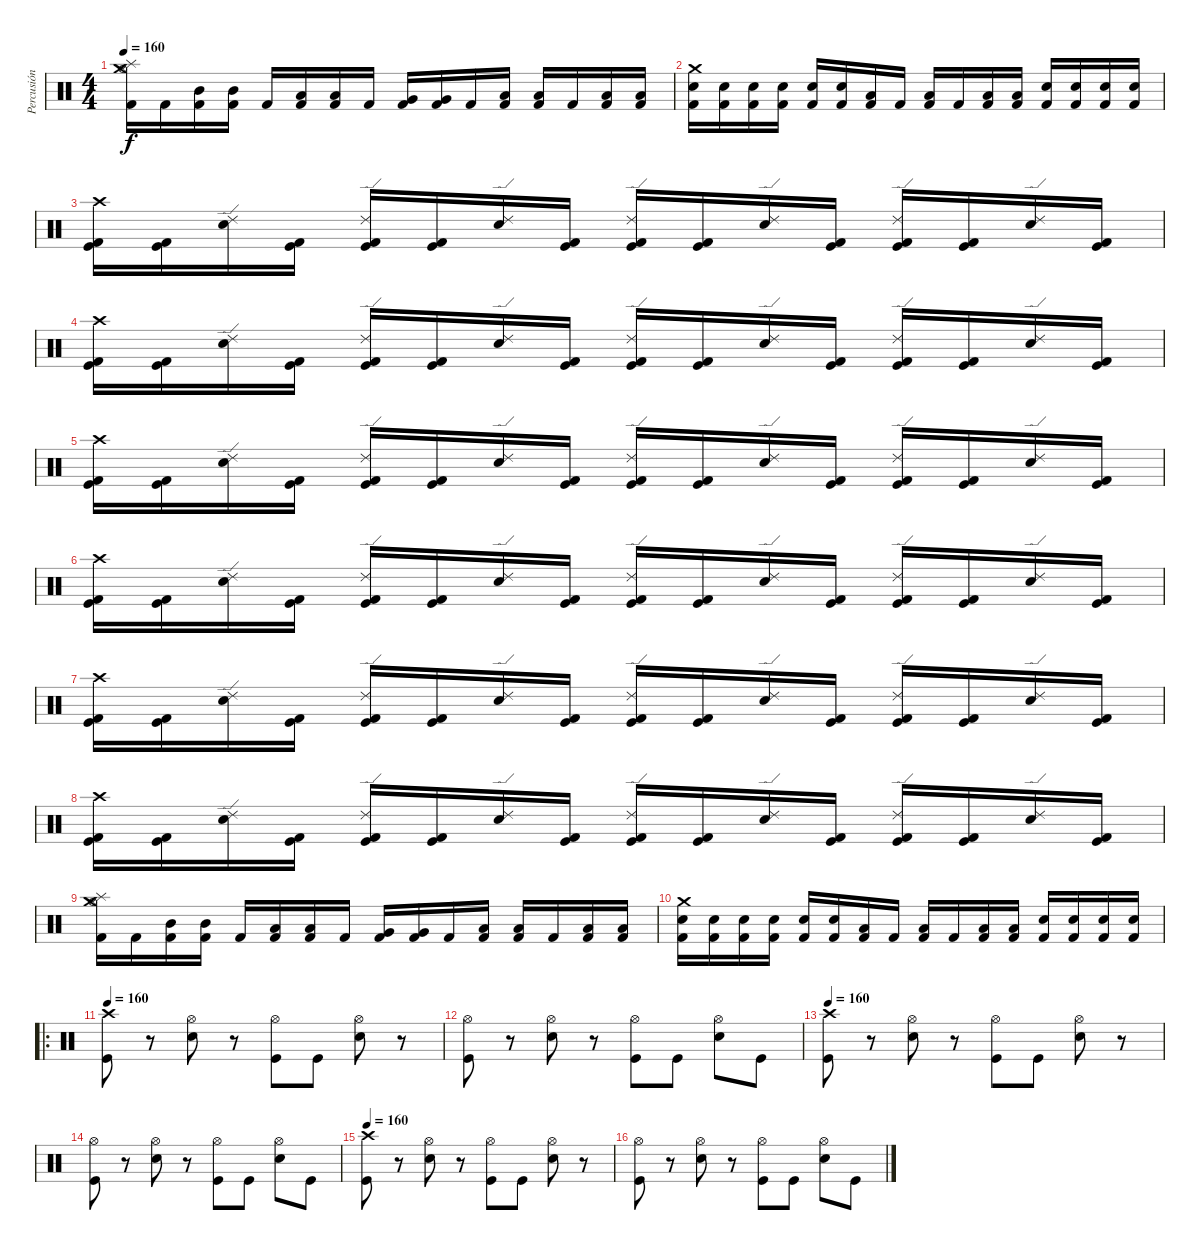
\track ("Percusión" "Percusión") {instrument percussion}
\staff {score}
\articulation defaults
\ts (4 4)
\tempo 160
\clef neutral
\ks c
("Splash (hit)" "Hi-Hat (open)" "Crash medium (hit)" "Kick (hit) 2").16{dy f} "Kick (hit) 2".16 ("Mid Tom (hit)" "Kick (hit) 2").16 ("Mid Tom (hit)" "Kick (hit) 2").16 "Kick (hit) 2".16 ("Low Tom (hit)" "Kick (hit) 2").16 ("Low Tom (hit)" "Kick (hit) 2").16 "Kick (hit) 2".16 ("Very Low Tom (hit)" "Kick (hit) 2").16 ("Very Low Tom (hit)" "Kick (hit) 2").16 "Kick (hit) 2".16 ("Low Floor Tom (hit)" "Kick (hit) 2").16 ("Low Floor Tom (hit)" "Kick (hit) 2").16 "Kick (hit) 2".16 ("Low Floor Tom (hit)" "Kick (hit) 2").16 ("Low Floor Tom (hit)" "Kick (hit) 2").16 |
("Kick (hit) 2" "Electric Snare (hit)" "Crash medium (hit)").16 ("Kick (hit) 2" "Electric Snare (hit)").16 ("Kick (hit) 2" "Electric Snare (hit)").16 ("Kick (hit) 2" "Electric Snare (hit)").16 ("Kick (hit) 2" "Electric Snare (hit)").16 ("Kick (hit) 2" "Electric Snare (hit)").16 ("Kick (hit) 2" "Low Tom (hit)").16 "Kick (hit) 2".16 ("Kick (hit) 2" "Low Tom (hit)").16 "Kick (hit) 2".16 ("Kick (hit) 2" "Low Tom (hit)").16 ("Kick (hit) 2" "Low Tom (hit)").16 ("Kick (hit) 2" "Electric Snare (hit)").16 ("Kick (hit) 2" "Electric Snare (hit)").16 ("Kick (hit) 2" "Electric Snare (hit)").16 ("Kick (hit) 2" "Electric Snare (hit)").16 |
("Kick (hit)" "Kick (hit) 2" "Crash high (hit)").16 ("Kick (hit)" "Kick (hit) 2").16 ("Electric Snare (hit)" "Ride (edge) 2").16 ("Kick (hit)" "Kick (hit) 2").16 ("Kick (hit)" "Kick (hit) 2" "Ride (edge) 2").16 ("Kick (hit)" "Kick (hit) 2").16 ("Electric Snare (hit)" "Ride (edge) 2").16 ("Kick (hit)" "Kick (hit) 2").16 ("Kick (hit)" "Kick (hit) 2" "Ride (edge) 2").16 ("Kick (hit)" "Kick (hit) 2").16 ("Electric Snare (hit)" "Ride (edge) 2").16 ("Kick (hit)" "Kick (hit) 2").16 ("Kick (hit)" "Kick (hit) 2" "Ride (edge) 2").16 ("Kick (hit)" "Kick (hit) 2").16 ("Electric Snare (hit)" "Ride (edge) 2").16 ("Kick (hit)" "Kick (hit) 2").16 |
("Kick (hit)" "Kick (hit) 2" "Crash high (hit)").16 ("Kick (hit)" "Kick (hit) 2").16 ("Electric Snare (hit)" "Ride (edge) 2").16 ("Kick (hit)" "Kick (hit) 2").16 ("Kick (hit)" "Kick (hit) 2" "Ride (edge) 2").16 ("Kick (hit)" "Kick (hit) 2").16 ("Electric Snare (hit)" "Ride (edge) 2").16 ("Kick (hit)" "Kick (hit) 2").16 ("Kick (hit)" "Kick (hit) 2" "Ride (edge) 2").16 ("Kick (hit)" "Kick (hit) 2").16 ("Electric Snare (hit)" "Ride (edge) 2").16 ("Kick (hit)" "Kick (hit) 2").16 ("Kick (hit)" "Kick (hit) 2" "Ride (edge) 2").16 ("Kick (hit)" "Kick (hit) 2").16 ("Electric Snare (hit)" "Ride (edge) 2").16 ("Kick (hit)" "Kick (hit) 2").16 |
("Kick (hit)" "Kick (hit) 2" "Crash high (hit)").16 ("Kick (hit)" "Kick (hit) 2").16 ("Electric Snare (hit)" "Ride (edge) 2").16 ("Kick (hit)" "Kick (hit) 2").16 ("Kick (hit)" "Kick (hit) 2" "Ride (edge) 2").16 ("Kick (hit)" "Kick (hit) 2").16 ("Electric Snare (hit)" "Ride (edge) 2").16 ("Kick (hit)" "Kick (hit) 2").16 ("Kick (hit)" "Kick (hit) 2" "Ride (edge) 2").16 ("Kick (hit)" "Kick (hit) 2").16 ("Electric Snare (hit)" "Ride (edge) 2").16 ("Kick (hit)" "Kick (hit) 2").16 ("Kick (hit)" "Kick (hit) 2" "Ride (edge) 2").16 ("Kick (hit)" "Kick (hit) 2").16 ("Electric Snare (hit)" "Ride (edge) 2").16 ("Kick (hit)" "Kick (hit) 2").16 |
("Kick (hit)" "Kick (hit) 2" "Crash high (hit)").16 ("Kick (hit)" "Kick (hit) 2").16 ("Electric Snare (hit)" "Ride (edge) 2").16 ("Kick (hit)" "Kick (hit) 2").16 ("Kick (hit)" "Kick (hit) 2" "Ride (edge) 2").16 ("Kick (hit)" "Kick (hit) 2").16 ("Electric Snare (hit)" "Ride (edge) 2").16 ("Kick (hit)" "Kick (hit) 2").16 ("Kick (hit)" "Kick (hit) 2" "Ride (edge) 2").16 ("Kick (hit)" "Kick (hit) 2").16 ("Electric Snare (hit)" "Ride (edge) 2").16 ("Kick (hit)" "Kick (hit) 2").16 ("Kick (hit)" "Kick (hit) 2" "Ride (edge) 2").16 ("Kick (hit)" "Kick (hit) 2").16 ("Electric Snare (hit)" "Ride (edge) 2").16 ("Kick (hit)" "Kick (hit) 2").16 |
("Kick (hit)" "Kick (hit) 2" "Crash high (hit)").16 ("Kick (hit)" "Kick (hit) 2").16 ("Electric Snare (hit)" "Ride (edge) 2").16 ("Kick (hit)" "Kick (hit) 2").16 ("Kick (hit)" "Kick (hit) 2" "Ride (edge) 2").16 ("Kick (hit)" "Kick (hit) 2").16 ("Electric Snare (hit)" "Ride (edge) 2").16 ("Kick (hit)" "Kick (hit) 2").16 ("Kick (hit)" "Kick (hit) 2" "Ride (edge) 2").16 ("Kick (hit)" "Kick (hit) 2").16 ("Electric Snare (hit)" "Ride (edge) 2").16 ("Kick (hit)" "Kick (hit) 2").16 ("Kick (hit)" "Kick (hit) 2" "Ride (edge) 2").16 ("Kick (hit)" "Kick (hit) 2").16 ("Electric Snare (hit)" "Ride (edge) 2").16 ("Kick (hit)" "Kick (hit) 2").16 |
("Kick (hit)" "Kick (hit) 2" "Crash high (hit)").16 ("Kick (hit)" "Kick (hit) 2").16 ("Electric Snare (hit)" "Ride (edge) 2").16 ("Kick (hit)" "Kick (hit) 2").16 ("Kick (hit)" "Kick (hit) 2" "Ride (edge) 2").16 ("Kick (hit)" "Kick (hit) 2").16 ("Electric Snare (hit)" "Ride (edge) 2").16 ("Kick (hit)" "Kick (hit) 2").16 ("Kick (hit)" "Kick (hit) 2" "Ride (edge) 2").16 ("Kick (hit)" "Kick (hit) 2").16 ("Electric Snare (hit)" "Ride (edge) 2").16 ("Kick (hit)" "Kick (hit) 2").16 ("Kick (hit)" "Kick (hit) 2" "Ride (edge) 2").16 ("Kick (hit)" "Kick (hit) 2").16 ("Electric Snare (hit)" "Ride (edge) 2").16 ("Kick (hit)" "Kick (hit) 2").16 |
("Splash (hit)" "Hi-Hat (open)" "Crash medium (hit)" "Kick (hit) 2").16 "Kick (hit) 2".16 ("Mid Tom (hit)" "Kick (hit) 2").16 ("Mid Tom (hit)" "Kick (hit) 2").16 "Kick (hit) 2".16 ("Low Tom (hit)" "Kick (hit) 2").16 ("Low Tom (hit)" "Kick (hit) 2").16 "Kick (hit) 2".16 ("Very Low Tom (hit)" "Kick (hit) 2").16 ("Very Low Tom (hit)" "Kick (hit) 2").16 "Kick (hit) 2".16 ("Low Floor Tom (hit)" "Kick (hit) 2").16 ("Low Floor Tom (hit)" "Kick (hit) 2").16 "Kick (hit) 2".16 ("Low Floor Tom (hit)" "Kick (hit) 2").16 ("Low Floor Tom (hit)" "Kick (hit) 2").16 |
("Kick (hit) 2" "Electric Snare (hit)" "Crash medium (hit)").16 ("Kick (hit) 2" "Electric Snare (hit)").16 ("Kick (hit) 2" "Electric Snare (hit)").16 ("Kick (hit) 2" "Electric Snare (hit)").16 ("Kick (hit) 2" "Electric Snare (hit)").16 ("Kick (hit) 2" "Electric Snare (hit)").16 ("Kick (hit) 2" "Low Tom (hit)").16 "Kick (hit) 2".16 ("Kick (hit) 2" "Low Tom (hit)").16 "Kick (hit) 2".16 ("Kick (hit) 2" "Low Tom (hit)").16 ("Kick (hit) 2" "Low Tom (hit)").16 ("Kick (hit) 2" "Electric Snare (hit)").16 ("Kick (hit) 2" "Electric Snare (hit)").16 ("Kick (hit) 2" "Electric Snare (hit)").16 ("Kick (hit) 2" "Electric Snare (hit)").16 |
\ro
\tempo 160
("Crash high (hit)" "Kick (hit)").8 r.8 ("Hi-Hat (open)" "Electric Snare (hit)").8 r.8 ("Hi-Hat (open)" "Kick (hit)").8 "Kick (hit)".8 ("Hi-Hat (open)" "Electric Snare (hit)").8 r.8 |
("Hi-Hat (open)" "Kick (hit)").8 r.8 ("Hi-Hat (open)" "Electric Snare (hit)").8 r.8 ("Hi-Hat (open)" "Kick (hit)").8 "Kick (hit)".8 ("Hi-Hat (open)" "Electric Snare (hit)").8 "Kick (hit)".8 |
\tempo 160
("Crash high (hit)" "Kick (hit)").8 r.8 ("Hi-Hat (open)" "Electric Snare (hit)").8 r.8 ("Hi-Hat (open)" "Kick (hit)").8 "Kick (hit)".8 ("Hi-Hat (open)" "Electric Snare (hit)").8 r.8 |
("Hi-Hat (open)" "Kick (hit)").8 r.8 ("Hi-Hat (open)" "Electric Snare (hit)").8 r.8 ("Hi-Hat (open)" "Kick (hit)").8 "Kick (hit)".8 ("Hi-Hat (open)" "Electric Snare (hit)").8 "Kick (hit)".8 |
\tempo 160
("Crash high (hit)" "Kick (hit)").8 r.8 ("Hi-Hat (open)" "Electric Snare (hit)").8 r.8 ("Hi-Hat (open)" "Kick (hit)").8 "Kick (hit)".8 ("Hi-Hat (open)" "Electric Snare (hit)").8 r.8 |
("Hi-Hat (open)" "Kick (hit)").8 r.8 ("Hi-Hat (open)" "Electric Snare (hit)").8 r.8 ("Hi-Hat (open)" "Kick (hit)").8 "Kick (hit)".8 ("Hi-Hat (open)" "Electric Snare (hit)").8 "Kick (hit)".8
